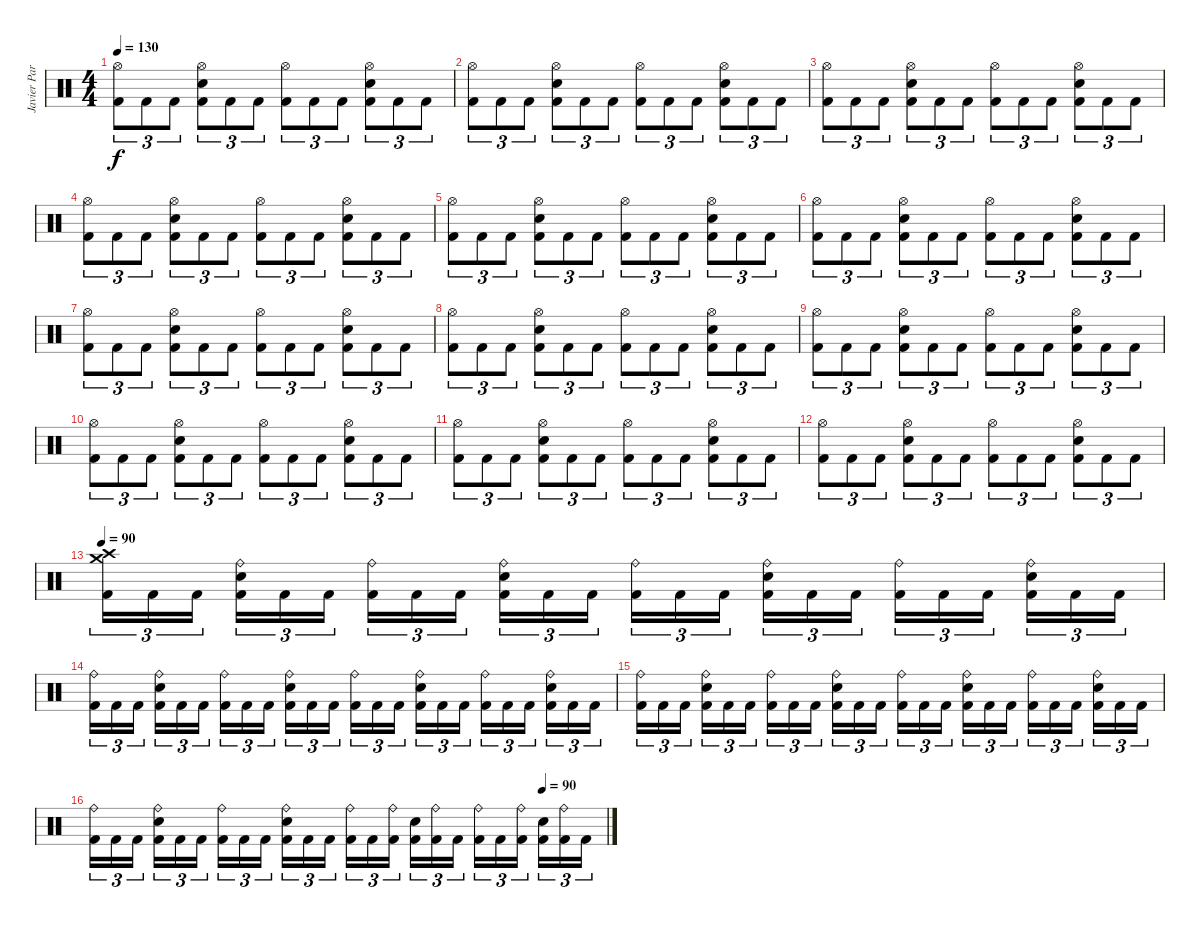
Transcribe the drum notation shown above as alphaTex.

\track ("Javier Partida" "Javier Par") {instrument percussion}
\staff {score}
\articulation defaults
\ts (4 4)
\tempo 130
\clef neutral
\ks c
("Hi-Hat (open)" "Kick (hit) 2").8{tu (3 2) dy f} "Kick (hit) 2".8{tu (3 2)} "Kick (hit) 2".8{tu (3 2)} ("Hi-Hat (open)" "Electric Snare (hit)" "Kick (hit) 2").8{tu (3 2)} "Kick (hit) 2".8{tu (3 2)} "Kick (hit) 2".8{tu (3 2)} ("Hi-Hat (open)" "Kick (hit) 2").8{tu (3 2)} "Kick (hit) 2".8{tu (3 2)} "Kick (hit) 2".8{tu (3 2)} ("Hi-Hat (open)" "Electric Snare (hit)" "Kick (hit) 2").8{tu (3 2)} "Kick (hit) 2".8{tu (3 2)} "Kick (hit) 2".8{tu (3 2)} |
("Hi-Hat (open)" "Kick (hit) 2").8{tu (3 2)} "Kick (hit) 2".8{tu (3 2)} "Kick (hit) 2".8{tu (3 2)} ("Hi-Hat (open)" "Electric Snare (hit)" "Kick (hit) 2").8{tu (3 2)} "Kick (hit) 2".8{tu (3 2)} "Kick (hit) 2".8{tu (3 2)} ("Hi-Hat (open)" "Kick (hit) 2").8{tu (3 2)} "Kick (hit) 2".8{tu (3 2)} "Kick (hit) 2".8{tu (3 2)} ("Hi-Hat (open)" "Electric Snare (hit)" "Kick (hit) 2").8{tu (3 2)} "Kick (hit) 2".8{tu (3 2)} "Kick (hit) 2".8{tu (3 2)} |
("Hi-Hat (open)" "Kick (hit) 2").8{tu (3 2)} "Kick (hit) 2".8{tu (3 2)} "Kick (hit) 2".8{tu (3 2)} ("Hi-Hat (open)" "Electric Snare (hit)" "Kick (hit) 2").8{tu (3 2)} "Kick (hit) 2".8{tu (3 2)} "Kick (hit) 2".8{tu (3 2)} ("Hi-Hat (open)" "Kick (hit) 2").8{tu (3 2)} "Kick (hit) 2".8{tu (3 2)} "Kick (hit) 2".8{tu (3 2)} ("Hi-Hat (open)" "Electric Snare (hit)" "Kick (hit) 2").8{tu (3 2)} "Kick (hit) 2".8{tu (3 2)} "Kick (hit) 2".8{tu (3 2)} |
("Hi-Hat (open)" "Kick (hit) 2").8{tu (3 2)} "Kick (hit) 2".8{tu (3 2)} "Kick (hit) 2".8{tu (3 2)} ("Hi-Hat (open)" "Electric Snare (hit)" "Kick (hit) 2").8{tu (3 2)} "Kick (hit) 2".8{tu (3 2)} "Kick (hit) 2".8{tu (3 2)} ("Hi-Hat (open)" "Kick (hit) 2").8{tu (3 2)} "Kick (hit) 2".8{tu (3 2)} "Kick (hit) 2".8{tu (3 2)} ("Hi-Hat (open)" "Electric Snare (hit)" "Kick (hit) 2").8{tu (3 2)} "Kick (hit) 2".8{tu (3 2)} "Kick (hit) 2".8{tu (3 2)} |
("Hi-Hat (open)" "Kick (hit) 2").8{tu (3 2)} "Kick (hit) 2".8{tu (3 2)} "Kick (hit) 2".8{tu (3 2)} ("Hi-Hat (open)" "Electric Snare (hit)" "Kick (hit) 2").8{tu (3 2)} "Kick (hit) 2".8{tu (3 2)} "Kick (hit) 2".8{tu (3 2)} ("Hi-Hat (open)" "Kick (hit) 2").8{tu (3 2)} "Kick (hit) 2".8{tu (3 2)} "Kick (hit) 2".8{tu (3 2)} ("Hi-Hat (open)" "Electric Snare (hit)" "Kick (hit) 2").8{tu (3 2)} "Kick (hit) 2".8{tu (3 2)} "Kick (hit) 2".8{tu (3 2)} |
("Hi-Hat (open)" "Kick (hit) 2").8{tu (3 2)} "Kick (hit) 2".8{tu (3 2)} "Kick (hit) 2".8{tu (3 2)} ("Hi-Hat (open)" "Electric Snare (hit)" "Kick (hit) 2").8{tu (3 2)} "Kick (hit) 2".8{tu (3 2)} "Kick (hit) 2".8{tu (3 2)} ("Hi-Hat (open)" "Kick (hit) 2").8{tu (3 2)} "Kick (hit) 2".8{tu (3 2)} "Kick (hit) 2".8{tu (3 2)} ("Hi-Hat (open)" "Electric Snare (hit)" "Kick (hit) 2").8{tu (3 2)} "Kick (hit) 2".8{tu (3 2)} "Kick (hit) 2".8{tu (3 2)} |
("Hi-Hat (open)" "Kick (hit) 2").8{tu (3 2)} "Kick (hit) 2".8{tu (3 2)} "Kick (hit) 2".8{tu (3 2)} ("Hi-Hat (open)" "Electric Snare (hit)" "Kick (hit) 2").8{tu (3 2)} "Kick (hit) 2".8{tu (3 2)} "Kick (hit) 2".8{tu (3 2)} ("Hi-Hat (open)" "Kick (hit) 2").8{tu (3 2)} "Kick (hit) 2".8{tu (3 2)} "Kick (hit) 2".8{tu (3 2)} ("Hi-Hat (open)" "Electric Snare (hit)" "Kick (hit) 2").8{tu (3 2)} "Kick (hit) 2".8{tu (3 2)} "Kick (hit) 2".8{tu (3 2)} |
("Hi-Hat (open)" "Kick (hit) 2").8{tu (3 2)} "Kick (hit) 2".8{tu (3 2)} "Kick (hit) 2".8{tu (3 2)} ("Hi-Hat (open)" "Electric Snare (hit)" "Kick (hit) 2").8{tu (3 2)} "Kick (hit) 2".8{tu (3 2)} "Kick (hit) 2".8{tu (3 2)} ("Hi-Hat (open)" "Kick (hit) 2").8{tu (3 2)} "Kick (hit) 2".8{tu (3 2)} "Kick (hit) 2".8{tu (3 2)} ("Hi-Hat (open)" "Electric Snare (hit)" "Kick (hit) 2").8{tu (3 2)} "Kick (hit) 2".8{tu (3 2)} "Kick (hit) 2".8{tu (3 2)} |
("Hi-Hat (open)" "Kick (hit) 2").8{tu (3 2)} "Kick (hit) 2".8{tu (3 2)} "Kick (hit) 2".8{tu (3 2)} ("Hi-Hat (open)" "Electric Snare (hit)" "Kick (hit) 2").8{tu (3 2)} "Kick (hit) 2".8{tu (3 2)} "Kick (hit) 2".8{tu (3 2)} ("Hi-Hat (open)" "Kick (hit) 2").8{tu (3 2)} "Kick (hit) 2".8{tu (3 2)} "Kick (hit) 2".8{tu (3 2)} ("Hi-Hat (open)" "Electric Snare (hit)" "Kick (hit) 2").8{tu (3 2)} "Kick (hit) 2".8{tu (3 2)} "Kick (hit) 2".8{tu (3 2)} |
("Hi-Hat (open)" "Kick (hit) 2").8{tu (3 2)} "Kick (hit) 2".8{tu (3 2)} "Kick (hit) 2".8{tu (3 2)} ("Hi-Hat (open)" "Electric Snare (hit)" "Kick (hit) 2").8{tu (3 2)} "Kick (hit) 2".8{tu (3 2)} "Kick (hit) 2".8{tu (3 2)} ("Hi-Hat (open)" "Kick (hit) 2").8{tu (3 2)} "Kick (hit) 2".8{tu (3 2)} "Kick (hit) 2".8{tu (3 2)} ("Hi-Hat (open)" "Electric Snare (hit)" "Kick (hit) 2").8{tu (3 2)} "Kick (hit) 2".8{tu (3 2)} "Kick (hit) 2".8{tu (3 2)} |
("Hi-Hat (open)" "Kick (hit) 2").8{tu (3 2)} "Kick (hit) 2".8{tu (3 2)} "Kick (hit) 2".8{tu (3 2)} ("Hi-Hat (open)" "Electric Snare (hit)" "Kick (hit) 2").8{tu (3 2)} "Kick (hit) 2".8{tu (3 2)} "Kick (hit) 2".8{tu (3 2)} ("Hi-Hat (open)" "Kick (hit) 2").8{tu (3 2)} "Kick (hit) 2".8{tu (3 2)} "Kick (hit) 2".8{tu (3 2)} ("Hi-Hat (open)" "Electric Snare (hit)" "Kick (hit) 2").8{tu (3 2)} "Kick (hit) 2".8{tu (3 2)} "Kick (hit) 2".8{tu (3 2)} |
("Hi-Hat (open)" "Kick (hit) 2").8{tu (3 2)} "Kick (hit) 2".8{tu (3 2)} "Kick (hit) 2".8{tu (3 2)} ("Hi-Hat (open)" "Electric Snare (hit)" "Kick (hit) 2").8{tu (3 2)} "Kick (hit) 2".8{tu (3 2)} "Kick (hit) 2".8{tu (3 2)} ("Hi-Hat (open)" "Kick (hit) 2").8{tu (3 2)} "Kick (hit) 2".8{tu (3 2)} "Kick (hit) 2".8{tu (3 2)} ("Hi-Hat (open)" "Electric Snare (hit)" "Kick (hit) 2").8{tu (3 2)} "Kick (hit) 2".8{tu (3 2)} "Kick (hit) 2".8{tu (3 2)} |
\tempo 90
("Crash medium (hit)" "Crash high (hit)" "Kick (hit) 2").16{tu (3 2)} "Kick (hit) 2".16{tu (3 2)} "Kick (hit) 2".16{tu (3 2)} ("Ride (bell)" "Electric Snare (hit)" "Kick (hit) 2").16{tu (3 2)} "Kick (hit) 2".16{tu (3 2)} "Kick (hit) 2".16{tu (3 2)} ("Ride (bell)" "Kick (hit) 2").16{tu (3 2)} "Kick (hit) 2".16{tu (3 2)} "Kick (hit) 2".16{tu (3 2)} ("Ride (bell)" "Electric Snare (hit)" "Kick (hit) 2").16{tu (3 2)} "Kick (hit) 2".16{tu (3 2)} "Kick (hit) 2".16{tu (3 2)} ("Ride (bell)" "Kick (hit) 2").16{tu (3 2)} "Kick (hit) 2".16{tu (3 2)} "Kick (hit) 2".16{tu (3 2)} ("Ride (bell)" "Electric Snare (hit)" "Kick (hit) 2").16{tu (3 2)} "Kick (hit) 2".16{tu (3 2)} "Kick (hit) 2".16{tu (3 2)} ("Ride (bell)" "Kick (hit) 2").16{tu (3 2)} "Kick (hit) 2".16{tu (3 2)} "Kick (hit) 2".16{tu (3 2)} ("Ride (bell)" "Electric Snare (hit)" "Kick (hit) 2").16{tu (3 2)} "Kick (hit) 2".16{tu (3 2)} "Kick (hit) 2".16{tu (3 2)} |
("Ride (bell)" "Kick (hit) 2").16{tu (3 2)} "Kick (hit) 2".16{tu (3 2)} "Kick (hit) 2".16{tu (3 2)} ("Ride (bell)" "Electric Snare (hit)" "Kick (hit) 2").16{tu (3 2)} "Kick (hit) 2".16{tu (3 2)} "Kick (hit) 2".16{tu (3 2)} ("Ride (bell)" "Kick (hit) 2").16{tu (3 2)} "Kick (hit) 2".16{tu (3 2)} "Kick (hit) 2".16{tu (3 2)} ("Ride (bell)" "Electric Snare (hit)" "Kick (hit) 2").16{tu (3 2)} "Kick (hit) 2".16{tu (3 2)} "Kick (hit) 2".16{tu (3 2)} ("Ride (bell)" "Kick (hit) 2").16{tu (3 2)} "Kick (hit) 2".16{tu (3 2)} "Kick (hit) 2".16{tu (3 2)} ("Ride (bell)" "Electric Snare (hit)" "Kick (hit) 2").16{tu (3 2)} "Kick (hit) 2".16{tu (3 2)} "Kick (hit) 2".16{tu (3 2)} ("Ride (bell)" "Kick (hit) 2").16{tu (3 2)} "Kick (hit) 2".16{tu (3 2)} "Kick (hit) 2".16{tu (3 2)} ("Ride (bell)" "Electric Snare (hit)" "Kick (hit) 2").16{tu (3 2)} "Kick (hit) 2".16{tu (3 2)} "Kick (hit) 2".16{tu (3 2)} |
("Ride (bell)" "Kick (hit) 2").16{tu (3 2)} "Kick (hit) 2".16{tu (3 2)} "Kick (hit) 2".16{tu (3 2)} ("Ride (bell)" "Electric Snare (hit)" "Kick (hit) 2").16{tu (3 2)} "Kick (hit) 2".16{tu (3 2)} "Kick (hit) 2".16{tu (3 2)} ("Ride (bell)" "Kick (hit) 2").16{tu (3 2)} "Kick (hit) 2".16{tu (3 2)} "Kick (hit) 2".16{tu (3 2)} ("Ride (bell)" "Electric Snare (hit)" "Kick (hit) 2").16{tu (3 2)} "Kick (hit) 2".16{tu (3 2)} "Kick (hit) 2".16{tu (3 2)} ("Ride (bell)" "Kick (hit) 2").16{tu (3 2)} "Kick (hit) 2".16{tu (3 2)} "Kick (hit) 2".16{tu (3 2)} ("Ride (bell)" "Electric Snare (hit)" "Kick (hit) 2").16{tu (3 2)} "Kick (hit) 2".16{tu (3 2)} "Kick (hit) 2".16{tu (3 2)} ("Ride (bell)" "Kick (hit) 2").16{tu (3 2)} "Kick (hit) 2".16{tu (3 2)} "Kick (hit) 2".16{tu (3 2)} ("Ride (bell)" "Electric Snare (hit)" "Kick (hit) 2").16{tu (3 2)} "Kick (hit) 2".16{tu (3 2)} "Kick (hit) 2".16{tu (3 2)} |
\tempo (90 0.875)
("Ride (bell)" "Kick (hit) 2").16{tu (3 2)} "Kick (hit) 2".16{tu (3 2)} "Kick (hit) 2".16{tu (3 2)} ("Ride (bell)" "Electric Snare (hit)" "Kick (hit) 2").16{tu (3 2)} "Kick (hit) 2".16{tu (3 2)} "Kick (hit) 2".16{tu (3 2)} ("Ride (bell)" "Kick (hit) 2").16{tu (3 2)} "Kick (hit) 2".16{tu (3 2)} "Kick (hit) 2".16{tu (3 2)} ("Ride (bell)" "Electric Snare (hit)" "Kick (hit) 2").16{tu (3 2)} "Kick (hit) 2".16{tu (3 2)} "Kick (hit) 2".16{tu (3 2)} ("Ride (bell)" "Kick (hit) 2").16{tu (3 2)} "Kick (hit) 2".16{tu (3 2)} ("Ride (bell)" "Kick (hit) 2").16{tu (3 2)} ("Electric Snare (hit)" "Kick (hit) 2").16{tu (3 2)} ("Ride (bell)" "Kick (hit) 2").16{tu (3 2)} "Kick (hit) 2".16{tu (3 2)} ("Ride (bell)" "Kick (hit) 2").16{tu (3 2)} "Kick (hit) 2".16{tu (3 2)} ("Ride (bell)" "Kick (hit) 2").16{tu (3 2)} ("Electric Snare (hit)" "Kick (hit) 2").16{tu (3 2)} ("Ride (bell)" "Kick (hit) 2").16{tu (3 2)} "Kick (hit) 2".16{tu (3 2)}
